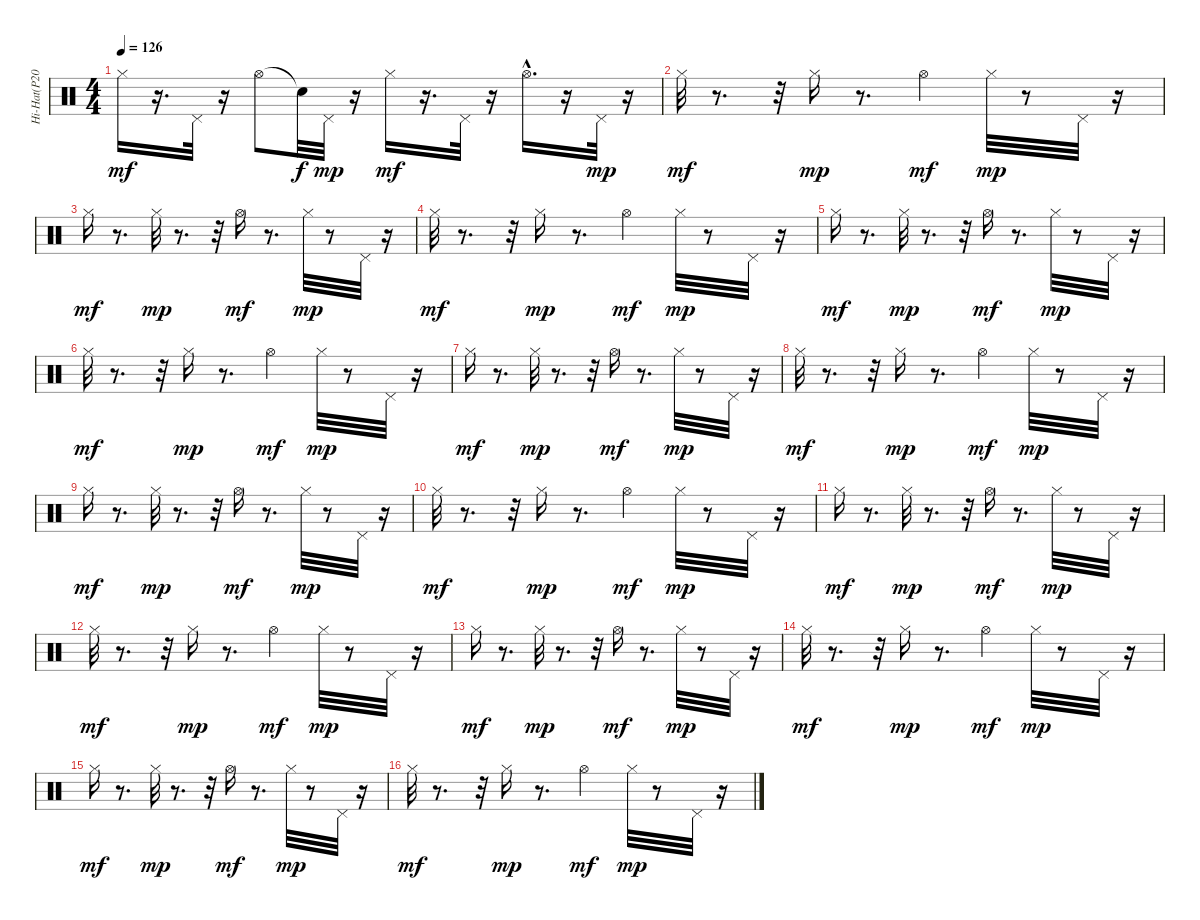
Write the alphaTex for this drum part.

\track ("Hi-Hat(P201)" "Hi-Hat(P20") {instrument percussion}
\staff {score}
\articulation defaults
\ts (4 4)
\tempo 126
\clef neutral
\ks c "Hi-Hat (closed)".16{dy mf}
r.16{d} "Pedal Hi-Hat (hit)".32 r.16 "Hi-Hat (open)".8 "Snare (hit)"{t}.32{dy f} "Pedal Hi-Hat (hit)".32{dy mp} r.16 "Hi-Hat (closed)".16{dy mf} r.16{d} "Pedal Hi-Hat (hit)".32 r.16 "Hi-Hat (open)"{hac}.16{d} r.16 "Pedal Hi-Hat (hit)".32{dy mp} r.16 |
"Hi-Hat (closed)".32{dy mf} r.8{d} r.32 "Hi-Hat (closed)".16{dy mp} r.8{d} "Hi-Hat (open)".4{dy mf} "Hi-Hat (closed)".32{dy mp} r.8 "Pedal Hi-Hat (hit)".32 r.16 |
"Hi-Hat (closed)".16{dy mf} r.8{d} "Hi-Hat (closed)".32{dy mp} r.8{d} r.32 "Hi-Hat (open)".16{dy mf} r.8{d} "Hi-Hat (closed)".32{dy mp} r.8 "Pedal Hi-Hat (hit)".32 r.16 |
"Hi-Hat (closed)".32{dy mf} r.8{d} r.32 "Hi-Hat (closed)".16{dy mp} r.8{d} "Hi-Hat (open)".4{dy mf} "Hi-Hat (closed)".32{dy mp} r.8 "Pedal Hi-Hat (hit)".32 r.16 |
"Hi-Hat (closed)".16{dy mf} r.8{d} "Hi-Hat (closed)".32{dy mp} r.8{d} r.32 "Hi-Hat (open)".16{dy mf} r.8{d} "Hi-Hat (closed)".32{dy mp} r.8 "Pedal Hi-Hat (hit)".32 r.16 |
"Hi-Hat (closed)".32{dy mf} r.8{d} r.32 "Hi-Hat (closed)".16{dy mp} r.8{d} "Hi-Hat (open)".4{dy mf} "Hi-Hat (closed)".32{dy mp} r.8 "Pedal Hi-Hat (hit)".32 r.16 |
"Hi-Hat (closed)".16{dy mf} r.8{d} "Hi-Hat (closed)".32{dy mp} r.8{d} r.32 "Hi-Hat (open)".16{dy mf} r.8{d} "Hi-Hat (closed)".32{dy mp} r.8 "Pedal Hi-Hat (hit)".32 r.16 |
"Hi-Hat (closed)".32{dy mf} r.8{d} r.32 "Hi-Hat (closed)".16{dy mp} r.8{d} "Hi-Hat (open)".4{dy mf} "Hi-Hat (closed)".32{dy mp} r.8 "Pedal Hi-Hat (hit)".32 r.16 |
"Hi-Hat (closed)".16{dy mf} r.8{d} "Hi-Hat (closed)".32{dy mp} r.8{d} r.32 "Hi-Hat (open)".16{dy mf} r.8{d} "Hi-Hat (closed)".32{dy mp} r.8 "Pedal Hi-Hat (hit)".32 r.16 |
"Hi-Hat (closed)".32{dy mf} r.8{d} r.32 "Hi-Hat (closed)".16{dy mp} r.8{d} "Hi-Hat (open)".4{dy mf} "Hi-Hat (closed)".32{dy mp} r.8 "Pedal Hi-Hat (hit)".32 r.16 |
"Hi-Hat (closed)".16{dy mf} r.8{d} "Hi-Hat (closed)".32{dy mp} r.8{d} r.32 "Hi-Hat (open)".16{dy mf} r.8{d} "Hi-Hat (closed)".32{dy mp} r.8 "Pedal Hi-Hat (hit)".32 r.16 |
"Hi-Hat (closed)".32{dy mf} r.8{d} r.32 "Hi-Hat (closed)".16{dy mp} r.8{d} "Hi-Hat (open)".4{dy mf} "Hi-Hat (closed)".32{dy mp} r.8 "Pedal Hi-Hat (hit)".32 r.16 |
"Hi-Hat (closed)".16{dy mf} r.8{d} "Hi-Hat (closed)".32{dy mp} r.8{d} r.32 "Hi-Hat (open)".16{dy mf} r.8{d} "Hi-Hat (closed)".32{dy mp} r.8 "Pedal Hi-Hat (hit)".32 r.16 |
"Hi-Hat (closed)".32{dy mf} r.8{d} r.32 "Hi-Hat (closed)".16{dy mp} r.8{d} "Hi-Hat (open)".4{dy mf} "Hi-Hat (closed)".32{dy mp} r.8 "Pedal Hi-Hat (hit)".32 r.16 |
"Hi-Hat (closed)".16{dy mf} r.8{d} "Hi-Hat (closed)".32{dy mp} r.8{d} r.32 "Hi-Hat (open)".16{dy mf} r.8{d} "Hi-Hat (closed)".32{dy mp} r.8 "Pedal Hi-Hat (hit)".32 r.16 |
"Hi-Hat (closed)".32{dy mf} r.8{d} r.32 "Hi-Hat (closed)".16{dy mp} r.8{d} "Hi-Hat (open)".4{dy mf} "Hi-Hat (closed)".32{dy mp} r.8 "Pedal Hi-Hat (hit)".32 r.16
